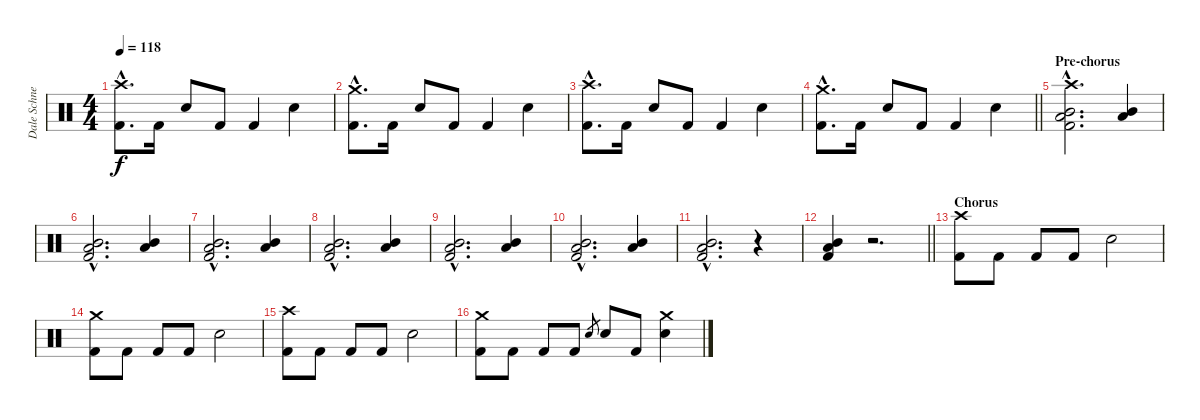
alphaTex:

\track ("Dale Schnettler (Drums)" "Dale Schne") {instrument percussion}
\staff {score}
\articulation defaults
\ts (4 4)
\tempo 118
\clef neutral
\ks c
("Crash high (hit)"{hac} "Kick (hit) 2"{hac}).8{d dy f} "Kick (hit) 2".16 "Electric Snare (hit)".8 "Kick (hit) 2".8 "Kick (hit) 2".4 "Electric Snare (hit)".4 |
("Crash medium (hit)"{hac} "Kick (hit) 2"{hac}).8{d} "Kick (hit) 2".16 "Electric Snare (hit)".8 "Kick (hit) 2".8 "Kick (hit) 2".4 "Electric Snare (hit)".4 |
("Crash high (hit)"{hac} "Kick (hit) 2"{hac}).8{d} "Kick (hit) 2".16 "Electric Snare (hit)".8 "Kick (hit) 2".8 "Kick (hit) 2".4 "Electric Snare (hit)".4 |
\barLineRight lightlight
("Crash medium (hit)"{hac} "Kick (hit) 2"{hac}).8{d} "Kick (hit) 2".16 "Electric Snare (hit)".8 "Kick (hit) 2".8 "Kick (hit) 2".4 "Electric Snare (hit)".4 |
\section ("" "Pre-chorus")
("Crash high (hit)"{hac} "Kick (hit) 2"{hac} "Mid Tom (hit)"{hac} "Low Tom (hit)"{hac}).2{d} ("Mid Tom (hit)" "Low Tom (hit)").4 |
("Kick (hit) 2"{hac} "Mid Tom (hit)"{hac} "Low Tom (hit)"{hac}).2{d} ("Mid Tom (hit)" "Low Tom (hit)").4 |
("Kick (hit) 2"{hac} "Mid Tom (hit)"{hac} "Low Tom (hit)"{hac}).2{d} ("Mid Tom (hit)" "Low Tom (hit)").4 |
("Kick (hit) 2"{hac} "Mid Tom (hit)"{hac} "Low Tom (hit)"{hac}).2{d} ("Mid Tom (hit)" "Low Tom (hit)").4 |
("Kick (hit) 2"{hac} "Mid Tom (hit)"{hac} "Low Tom (hit)"{hac}).2{d} ("Mid Tom (hit)" "Low Tom (hit)").4 |
("Kick (hit) 2"{hac} "Mid Tom (hit)"{hac} "Low Tom (hit)"{hac}).2{d} ("Mid Tom (hit)" "Low Tom (hit)").4 |
("Kick (hit) 2"{hac} "Mid Tom (hit)"{hac} "Low Tom (hit)"{hac}).2{d} r.4 |
\barLineRight lightlight
("Kick (hit) 2" "Mid Tom (hit)" "Low Tom (hit)").4 r.2{d} |
\section ("" "Chorus")
("Crash high (hit)" "Kick (hit) 2").8 "Kick (hit) 2".8 "Kick (hit) 2".8 "Kick (hit) 2".8 "Electric Snare (hit)".2 |
("Crash medium (hit)" "Kick (hit) 2").8 "Kick (hit) 2".8 "Kick (hit) 2".8 "Kick (hit) 2".8 "Electric Snare (hit)".2 |
("Crash high (hit)" "Kick (hit) 2").8 "Kick (hit) 2".8 "Kick (hit) 2".8 "Kick (hit) 2".8 "Electric Snare (hit)".2 |
("Crash medium (hit)" "Kick (hit) 2").8 "Kick (hit) 2".8 "Kick (hit) 2".8 "Kick (hit) 2".8 "Electric Snare (hit)".8{gr} "Electric Snare (hit)".8 "Kick (hit) 2".8 ("Crash medium (hit)" "Electric Snare (hit)").4
